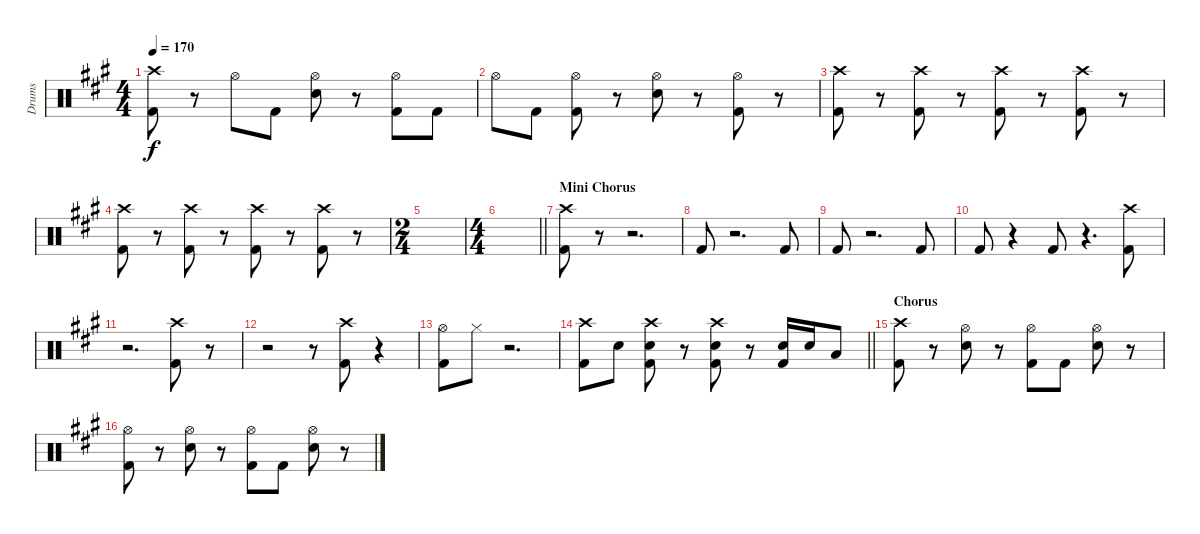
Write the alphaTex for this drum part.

\track ("Drums" "Drums") {instrument percussion}
\staff {score}
\articulation defaults
\ts (4 4)
\tempo 170
\clef neutral
\ks a
("Crash high (hit)" "Kick (hit) 2").8{dy f} r.8 "Hi-Hat (open)".8 "Kick (hit) 2".8 ("Hi-Hat (open)" "Snare (hit) 2").8 r.8 ("Hi-Hat (open)" "Kick (hit) 2").8 "Kick (hit) 2".8 |
"Hi-Hat (open)".8 "Kick (hit) 2".8 ("Hi-Hat (open)" "Kick (hit) 2").8 r.8 ("Hi-Hat (open)" "Snare (hit) 2").8 r.8 ("Hi-Hat (open)" "Kick (hit) 2").8 r.8 |
("Crash high (hit)" "Kick (hit) 2").8 r.8 ("Crash high (hit)" "Kick (hit) 2").8 r.8 ("Crash high (hit)" "Kick (hit) 2").8 r.8 ("Crash high (hit)" "Kick (hit) 2").8 r.8 |
("Crash high (hit)" "Kick (hit) 2").8 r.8 ("Crash high (hit)" "Kick (hit) 2").8 r.8 ("Crash high (hit)" "Kick (hit) 2").8 r.8 ("Crash high (hit)" "Kick (hit) 2").8 r.8 |
\ts (2 4)
|
\ts (4 4)
\barLineRight lightlight
|
\section ("" "Mini Chorus")
("Crash high (hit)" "Kick (hit) 2").8 r.8 r.2{d} |
"Kick (hit) 2".8 r.2{d} "Kick (hit) 2".8 |
"Kick (hit) 2".8 r.2{d} "Kick (hit) 2".8 |
"Kick (hit) 2".8 r.4 "Kick (hit) 2".8 r.4{d} ("Crash high (hit)" "Kick (hit) 2").8 |
r.2{d} ("Crash high (hit)" "Kick (hit) 2").8 r.8 |
r.2 r.8 ("Crash high (hit)" "Kick (hit) 2").8 r.4 |
("Hi-Hat (open)" "Kick (hit) 2").8 "Hi-Hat (closed)".8 r.2{d} |
\barLineRight lightlight
("Crash high (hit)" "Kick (hit) 2").8 "Snare (hit) 2".8 ("Crash high (hit)" "Snare (hit) 2" "Kick (hit) 2").8 r.8 ("Crash high (hit)" "Snare (hit) 2" "Kick (hit) 2").8 r.8 ("Snare (hit) 2" "Kick (hit) 2").16 "Snare (hit) 2".16 "Low Tom (hit)".8 |
\section ("" "Chorus")
("Crash high (hit)" "Kick (hit) 2").8 r.8 ("Hi-Hat (open)" "Snare (hit) 2").8 r.8 ("Hi-Hat (open)" "Kick (hit) 2").8 "Kick (hit) 2".8 ("Hi-Hat (open)" "Snare (hit) 2").8 r.8 |
("Hi-Hat (open)" "Kick (hit) 2").8 r.8 ("Hi-Hat (open)" "Snare (hit) 2").8 r.8 ("Hi-Hat (open)" "Kick (hit) 2").8 "Kick (hit) 2".8 ("Hi-Hat (open)" "Snare (hit) 2").8 r.8
